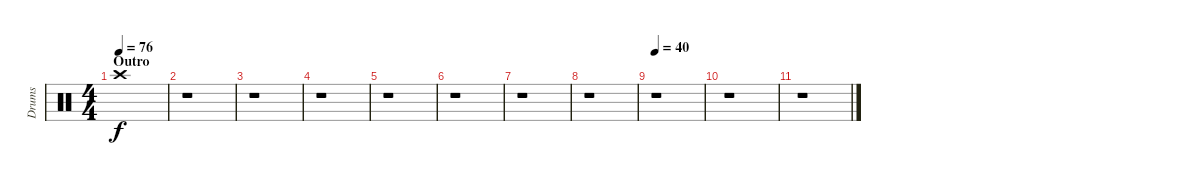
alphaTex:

\track ("Drums" "Drums") {instrument percussion}
\staff {score}
\articulation defaults
\ts (4 4)
\section ("" "Outro")
\tempo 76
\clef neutral
\ks c "Crash high (hit)".1{dy f}
|
r.1 |
r.1 |
r.1 |
r.1 |
r.1 |
r.1 |
r.1 |
\tempo 40
r.1 |
r.1 |
r.1
